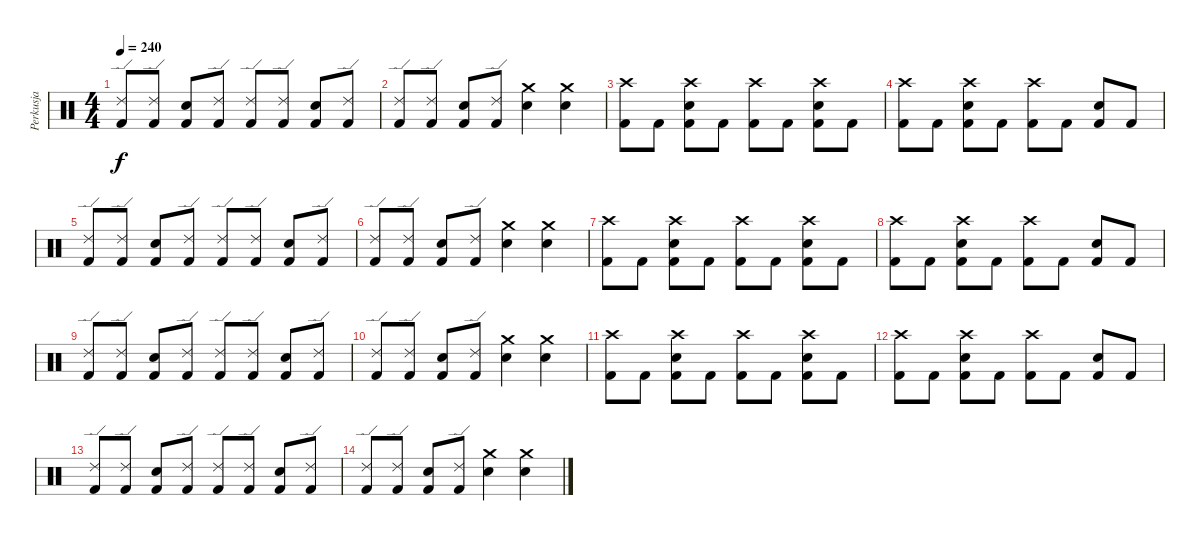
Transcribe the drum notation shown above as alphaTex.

\track ("Perkusja" "Perkusja") {instrument percussion}
\staff {score}
\articulation defaults
\ts (4 4)
\tempo 240
\clef neutral
\ks c
("Ride (edge) 2" "Kick (hit) 2").8{dy f} ("Ride (edge) 2" "Kick (hit) 2").8 ("Snare (hit) 2" "Kick (hit) 2").8 ("Ride (edge) 2" "Kick (hit) 2").8 ("Ride (edge) 2" "Kick (hit) 2").8 ("Ride (edge) 2" "Kick (hit) 2").8 ("Snare (hit) 2" "Kick (hit) 2").8 ("Ride (edge) 2" "Kick (hit) 2").8 |
("Ride (edge) 2" "Kick (hit) 2").8 ("Ride (edge) 2" "Kick (hit) 2").8 ("Snare (hit) 2" "Kick (hit) 2").8 ("Ride (edge) 2" "Kick (hit) 2").8 ("Crash medium (hit)" "Snare (hit) 2").4 ("Crash medium (hit)" "Snare (hit) 2").4 |
("Crash high (hit)" "Kick (hit) 2").8 "Kick (hit) 2".8 ("Crash high (hit)" "Snare (hit) 2" "Kick (hit) 2").8 "Kick (hit) 2".8 ("Crash high (hit)" "Kick (hit) 2").8 "Kick (hit) 2".8 ("Crash high (hit)" "Snare (hit) 2" "Kick (hit) 2").8 "Kick (hit) 2".8 |
("Crash high (hit)" "Kick (hit) 2").8 "Kick (hit) 2".8 ("Crash high (hit)" "Snare (hit) 2" "Kick (hit) 2").8 "Kick (hit) 2".8 ("Crash high (hit)" "Kick (hit) 2").8 "Kick (hit) 2".8 ("Snare (hit) 2" "Kick (hit) 2").8 "Kick (hit) 2".8 |
("Ride (edge) 2" "Kick (hit) 2").8 ("Ride (edge) 2" "Kick (hit) 2").8 ("Snare (hit) 2" "Kick (hit) 2").8 ("Ride (edge) 2" "Kick (hit) 2").8 ("Ride (edge) 2" "Kick (hit) 2").8 ("Ride (edge) 2" "Kick (hit) 2").8 ("Snare (hit) 2" "Kick (hit) 2").8 ("Ride (edge) 2" "Kick (hit) 2").8 |
("Ride (edge) 2" "Kick (hit) 2").8 ("Ride (edge) 2" "Kick (hit) 2").8 ("Snare (hit) 2" "Kick (hit) 2").8 ("Ride (edge) 2" "Kick (hit) 2").8 ("Crash medium (hit)" "Snare (hit) 2").4 ("Crash medium (hit)" "Snare (hit) 2").4 |
("Crash high (hit)" "Kick (hit) 2").8 "Kick (hit) 2".8 ("Crash high (hit)" "Snare (hit) 2" "Kick (hit) 2").8 "Kick (hit) 2".8 ("Crash high (hit)" "Kick (hit) 2").8 "Kick (hit) 2".8 ("Crash high (hit)" "Snare (hit) 2" "Kick (hit) 2").8 "Kick (hit) 2".8 |
("Crash high (hit)" "Kick (hit) 2").8 "Kick (hit) 2".8 ("Crash high (hit)" "Snare (hit) 2" "Kick (hit) 2").8 "Kick (hit) 2".8 ("Crash high (hit)" "Kick (hit) 2").8 "Kick (hit) 2".8 ("Snare (hit) 2" "Kick (hit) 2").8 "Kick (hit) 2".8 |
("Ride (edge) 2" "Kick (hit) 2").8 ("Ride (edge) 2" "Kick (hit) 2").8 ("Snare (hit) 2" "Kick (hit) 2").8 ("Ride (edge) 2" "Kick (hit) 2").8 ("Ride (edge) 2" "Kick (hit) 2").8 ("Ride (edge) 2" "Kick (hit) 2").8 ("Snare (hit) 2" "Kick (hit) 2").8 ("Ride (edge) 2" "Kick (hit) 2").8 |
("Ride (edge) 2" "Kick (hit) 2").8 ("Ride (edge) 2" "Kick (hit) 2").8 ("Snare (hit) 2" "Kick (hit) 2").8 ("Ride (edge) 2" "Kick (hit) 2").8 ("Crash medium (hit)" "Snare (hit) 2").4 ("Crash medium (hit)" "Snare (hit) 2").4 |
("Crash high (hit)" "Kick (hit) 2").8 "Kick (hit) 2".8 ("Crash high (hit)" "Snare (hit) 2" "Kick (hit) 2").8 "Kick (hit) 2".8 ("Crash high (hit)" "Kick (hit) 2").8 "Kick (hit) 2".8 ("Crash high (hit)" "Snare (hit) 2" "Kick (hit) 2").8 "Kick (hit) 2".8 |
("Crash high (hit)" "Kick (hit) 2").8 "Kick (hit) 2".8 ("Crash high (hit)" "Snare (hit) 2" "Kick (hit) 2").8 "Kick (hit) 2".8 ("Crash high (hit)" "Kick (hit) 2").8 "Kick (hit) 2".8 ("Snare (hit) 2" "Kick (hit) 2").8 "Kick (hit) 2".8 |
("Ride (edge) 2" "Kick (hit) 2").8 ("Ride (edge) 2" "Kick (hit) 2").8 ("Snare (hit) 2" "Kick (hit) 2").8 ("Ride (edge) 2" "Kick (hit) 2").8 ("Ride (edge) 2" "Kick (hit) 2").8 ("Ride (edge) 2" "Kick (hit) 2").8 ("Snare (hit) 2" "Kick (hit) 2").8 ("Ride (edge) 2" "Kick (hit) 2").8 |
("Ride (edge) 2" "Kick (hit) 2").8 ("Ride (edge) 2" "Kick (hit) 2").8 ("Snare (hit) 2" "Kick (hit) 2").8 ("Ride (edge) 2" "Kick (hit) 2").8 ("Crash medium (hit)" "Snare (hit) 2").4 ("Crash medium (hit)" "Snare (hit) 2").4
